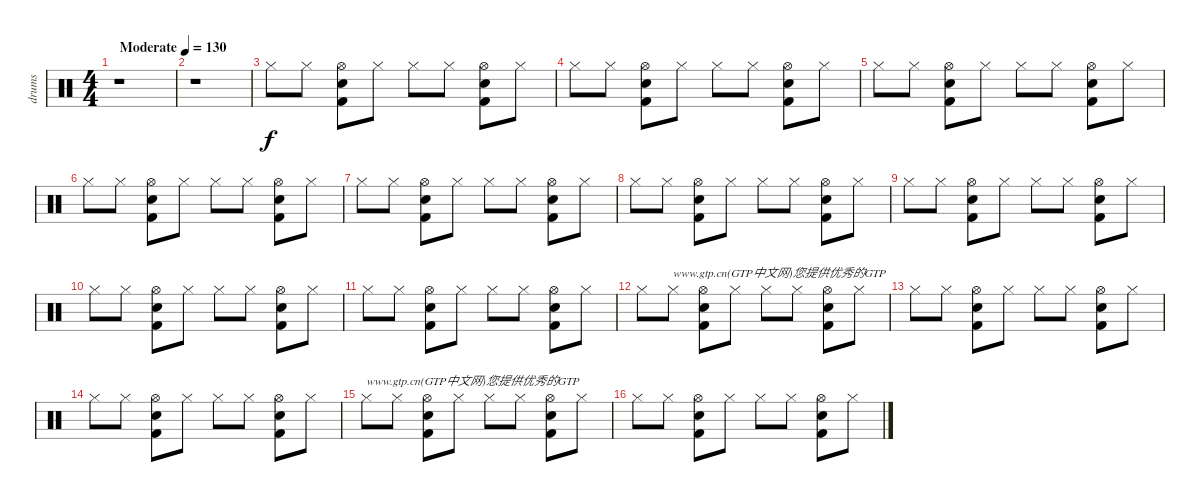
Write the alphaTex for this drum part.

\track ("drums" "drums") {instrument percussion}
\staff {score}
\articulation defaults
\ts (4 4)
\tempo (130 "Moderate")
\clef neutral
\ks c
r.1{dy f} |
r.1 |
"Hi-Hat (closed)".8 "Hi-Hat (closed)".8 ("Snare (hit) 2" "Hi-Hat (open)" "Kick (hit) 2").8 "Hi-Hat (closed)".8 "Hi-Hat (closed)".8 "Hi-Hat (closed)".8 ("Snare (hit) 2" "Hi-Hat (open)" "Kick (hit) 2").8 "Hi-Hat (closed)".8 |
"Hi-Hat (closed)".8 "Hi-Hat (closed)".8 ("Snare (hit) 2" "Hi-Hat (open)" "Kick (hit) 2").8 "Hi-Hat (closed)".8 "Hi-Hat (closed)".8 "Hi-Hat (closed)".8 ("Snare (hit) 2" "Hi-Hat (open)" "Kick (hit) 2").8 "Hi-Hat (closed)".8 |
"Hi-Hat (closed)".8 "Hi-Hat (closed)".8 ("Snare (hit) 2" "Hi-Hat (open)" "Kick (hit) 2").8 "Hi-Hat (closed)".8 "Hi-Hat (closed)".8 "Hi-Hat (closed)".8 ("Snare (hit) 2" "Hi-Hat (open)" "Kick (hit) 2").8 "Hi-Hat (closed)".8 |
"Hi-Hat (closed)".8 "Hi-Hat (closed)".8 ("Snare (hit) 2" "Hi-Hat (open)" "Kick (hit) 2").8 "Hi-Hat (closed)".8 "Hi-Hat (closed)".8 "Hi-Hat (closed)".8 ("Snare (hit) 2" "Hi-Hat (open)" "Kick (hit) 2").8 "Hi-Hat (closed)".8 |
"Hi-Hat (closed)".8 "Hi-Hat (closed)".8 ("Snare (hit) 2" "Hi-Hat (open)" "Kick (hit) 2").8 "Hi-Hat (closed)".8 "Hi-Hat (closed)".8 "Hi-Hat (closed)".8 ("Snare (hit) 2" "Hi-Hat (open)" "Kick (hit) 2").8 "Hi-Hat (closed)".8 |
"Hi-Hat (closed)".8 "Hi-Hat (closed)".8 ("Snare (hit) 2" "Hi-Hat (open)" "Kick (hit) 2").8 "Hi-Hat (closed)".8 "Hi-Hat (closed)".8 "Hi-Hat (closed)".8 ("Snare (hit) 2" "Hi-Hat (open)" "Kick (hit) 2").8 "Hi-Hat (closed)".8 |
"Hi-Hat (closed)".8 "Hi-Hat (closed)".8 ("Snare (hit) 2" "Hi-Hat (open)" "Kick (hit) 2").8 "Hi-Hat (closed)".8 "Hi-Hat (closed)".8 "Hi-Hat (closed)".8 ("Snare (hit) 2" "Hi-Hat (open)" "Kick (hit) 2").8 "Hi-Hat (closed)".8 |
"Hi-Hat (closed)".8 "Hi-Hat (closed)".8 ("Snare (hit) 2" "Hi-Hat (open)" "Kick (hit) 2").8 "Hi-Hat (closed)".8 "Hi-Hat (closed)".8 "Hi-Hat (closed)".8 ("Snare (hit) 2" "Hi-Hat (open)" "Kick (hit) 2").8 "Hi-Hat (closed)".8 |
"Hi-Hat (closed)".8 "Hi-Hat (closed)".8 ("Snare (hit) 2" "Hi-Hat (open)" "Kick (hit) 2").8 "Hi-Hat (closed)".8 "Hi-Hat (closed)".8 "Hi-Hat (closed)".8 ("Snare (hit) 2" "Hi-Hat (open)" "Kick (hit) 2").8 "Hi-Hat (closed)".8 |
"Hi-Hat (closed)".8 "Hi-Hat (closed)".8{txt "www.gtp.cn(GTP中文网)您提供优秀的GTP"} ("Snare (hit) 2" "Hi-Hat (open)" "Kick (hit) 2").8 "Hi-Hat (closed)".8 "Hi-Hat (closed)".8 "Hi-Hat (closed)".8 ("Snare (hit) 2" "Hi-Hat (open)" "Kick (hit) 2").8 "Hi-Hat (closed)".8 |
"Hi-Hat (closed)".8 "Hi-Hat (closed)".8 ("Snare (hit) 2" "Hi-Hat (open)" "Kick (hit) 2").8 "Hi-Hat (closed)".8 "Hi-Hat (closed)".8 "Hi-Hat (closed)".8 ("Snare (hit) 2" "Hi-Hat (open)" "Kick (hit) 2").8 "Hi-Hat (closed)".8 |
"Hi-Hat (closed)".8 "Hi-Hat (closed)".8 ("Snare (hit) 2" "Hi-Hat (open)" "Kick (hit) 2").8 "Hi-Hat (closed)".8 "Hi-Hat (closed)".8 "Hi-Hat (closed)".8 ("Snare (hit) 2" "Hi-Hat (open)" "Kick (hit) 2").8 "Hi-Hat (closed)".8 |
"Hi-Hat (closed)".8{txt "www.gtp.cn(GTP中文网)您提供优秀的GTP"} "Hi-Hat (closed)".8 ("Snare (hit) 2" "Hi-Hat (open)" "Kick (hit) 2").8 "Hi-Hat (closed)".8 "Hi-Hat (closed)".8 "Hi-Hat (closed)".8 ("Snare (hit) 2" "Hi-Hat (open)" "Kick (hit) 2").8 "Hi-Hat (closed)".8 |
"Hi-Hat (closed)".8 "Hi-Hat (closed)".8 ("Snare (hit) 2" "Hi-Hat (open)" "Kick (hit) 2").8 "Hi-Hat (closed)".8 "Hi-Hat (closed)".8 "Hi-Hat (closed)".8 ("Snare (hit) 2" "Hi-Hat (open)" "Kick (hit) 2").8 "Hi-Hat (closed)".8
